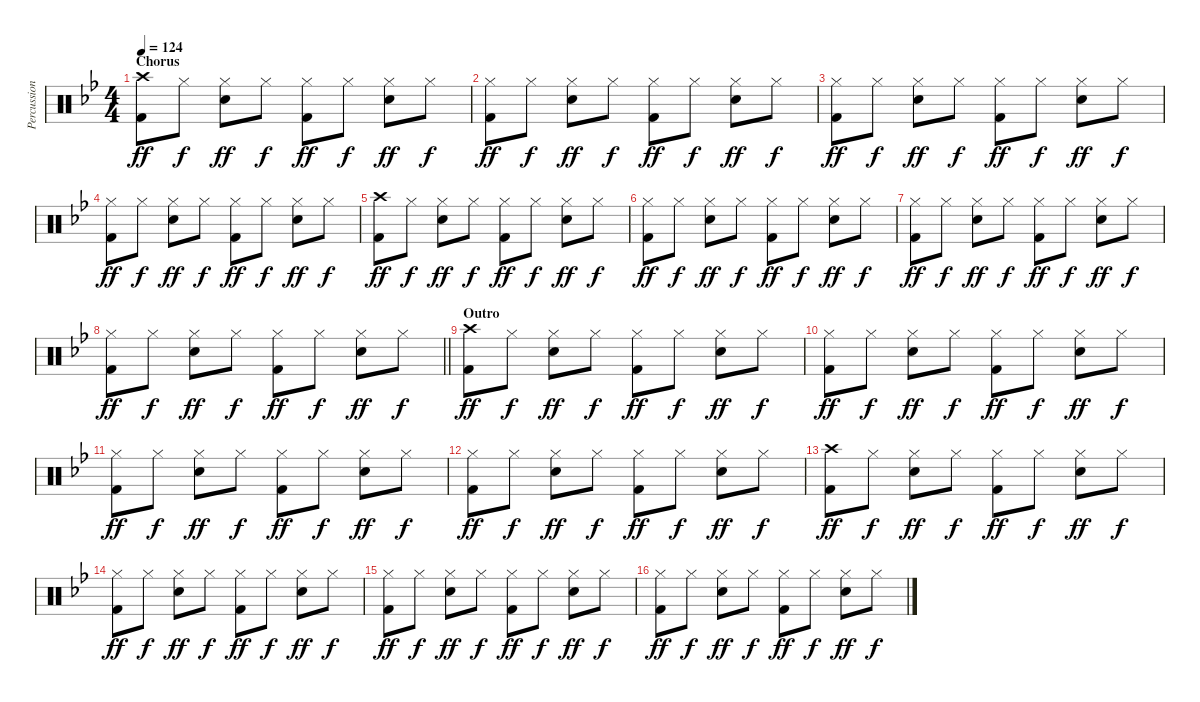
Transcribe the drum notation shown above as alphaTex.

\track ("Percussion" "Percussion") {instrument percussion}
\staff {score}
\articulation defaults
\ts (4 4)
\section ("" "Chorus")
\tempo 124
\clef neutral
\ks gminor
("Crash high (hit)" "Kick (hit) 2").8{dy ff} "Hi-Hat (closed)".8{dy f} ("Hi-Hat (closed)" "Electric Snare (hit)").8{dy ff} "Hi-Hat (closed)".8{dy f} ("Hi-Hat (closed)" "Kick (hit) 2").8{dy ff} "Hi-Hat (closed)".8{dy f} ("Hi-Hat (closed)" "Electric Snare (hit)").8{dy ff} "Hi-Hat (closed)".8{dy f} |
("Hi-Hat (closed)" "Kick (hit) 2").8{dy ff} "Hi-Hat (closed)".8{dy f} ("Hi-Hat (closed)" "Electric Snare (hit)").8{dy ff} "Hi-Hat (closed)".8{dy f} ("Hi-Hat (closed)" "Kick (hit) 2").8{dy ff} "Hi-Hat (closed)".8{dy f} ("Hi-Hat (closed)" "Electric Snare (hit)").8{dy ff} "Hi-Hat (closed)".8{dy f} |
("Hi-Hat (closed)" "Kick (hit) 2").8{dy ff} "Hi-Hat (closed)".8{dy f} ("Hi-Hat (closed)" "Electric Snare (hit)").8{dy ff} "Hi-Hat (closed)".8{dy f} ("Hi-Hat (closed)" "Kick (hit) 2").8{dy ff} "Hi-Hat (closed)".8{dy f} ("Hi-Hat (closed)" "Electric Snare (hit)").8{dy ff} "Hi-Hat (closed)".8{dy f} |
("Hi-Hat (closed)" "Kick (hit) 2").8{dy ff} "Hi-Hat (closed)".8{dy f} ("Hi-Hat (closed)" "Electric Snare (hit)").8{dy ff} "Hi-Hat (closed)".8{dy f} ("Hi-Hat (closed)" "Kick (hit) 2").8{dy ff} "Hi-Hat (closed)".8{dy f} ("Hi-Hat (closed)" "Electric Snare (hit)").8{dy ff} "Hi-Hat (closed)".8{dy f} |
("Crash high (hit)" "Kick (hit) 2").8{dy ff} "Hi-Hat (closed)".8{dy f} ("Hi-Hat (closed)" "Electric Snare (hit)").8{dy ff} "Hi-Hat (closed)".8{dy f} ("Hi-Hat (closed)" "Kick (hit) 2").8{dy ff} "Hi-Hat (closed)".8{dy f} ("Hi-Hat (closed)" "Electric Snare (hit)").8{dy ff} "Hi-Hat (closed)".8{dy f} |
("Hi-Hat (closed)" "Kick (hit) 2").8{dy ff} "Hi-Hat (closed)".8{dy f} ("Hi-Hat (closed)" "Electric Snare (hit)").8{dy ff} "Hi-Hat (closed)".8{dy f} ("Hi-Hat (closed)" "Kick (hit) 2").8{dy ff} "Hi-Hat (closed)".8{dy f} ("Hi-Hat (closed)" "Electric Snare (hit)").8{dy ff} "Hi-Hat (closed)".8{dy f} |
("Hi-Hat (closed)" "Kick (hit) 2").8{dy ff} "Hi-Hat (closed)".8{dy f} ("Hi-Hat (closed)" "Electric Snare (hit)").8{dy ff} "Hi-Hat (closed)".8{dy f} ("Hi-Hat (closed)" "Kick (hit) 2").8{dy ff} "Hi-Hat (closed)".8{dy f} ("Hi-Hat (closed)" "Electric Snare (hit)").8{dy ff} "Hi-Hat (closed)".8{dy f} |
\barLineRight lightlight
("Hi-Hat (closed)" "Kick (hit) 2").8{dy ff} "Hi-Hat (closed)".8{dy f} ("Hi-Hat (closed)" "Electric Snare (hit)").8{dy ff} "Hi-Hat (closed)".8{dy f} ("Hi-Hat (closed)" "Kick (hit) 2").8{dy ff} "Hi-Hat (closed)".8{dy f} ("Hi-Hat (closed)" "Electric Snare (hit)").8{dy ff} "Hi-Hat (closed)".8{dy f} |
\section ("" "Outro")
("Crash high (hit)" "Kick (hit) 2").8{dy ff} "Hi-Hat (closed)".8{dy f} ("Hi-Hat (closed)" "Electric Snare (hit)").8{dy ff} "Hi-Hat (closed)".8{dy f} ("Hi-Hat (closed)" "Kick (hit) 2").8{dy ff} "Hi-Hat (closed)".8{dy f} ("Hi-Hat (closed)" "Electric Snare (hit)").8{dy ff} "Hi-Hat (closed)".8{dy f} |
("Hi-Hat (closed)" "Kick (hit) 2").8{dy ff} "Hi-Hat (closed)".8{dy f} ("Hi-Hat (closed)" "Electric Snare (hit)").8{dy ff} "Hi-Hat (closed)".8{dy f} ("Hi-Hat (closed)" "Kick (hit) 2").8{dy ff} "Hi-Hat (closed)".8{dy f} ("Hi-Hat (closed)" "Electric Snare (hit)").8{dy ff} "Hi-Hat (closed)".8{dy f} |
("Hi-Hat (closed)" "Kick (hit) 2").8{dy ff} "Hi-Hat (closed)".8{dy f} ("Hi-Hat (closed)" "Electric Snare (hit)").8{dy ff} "Hi-Hat (closed)".8{dy f} ("Hi-Hat (closed)" "Kick (hit) 2").8{dy ff} "Hi-Hat (closed)".8{dy f} ("Hi-Hat (closed)" "Electric Snare (hit)").8{dy ff} "Hi-Hat (closed)".8{dy f} |
("Hi-Hat (closed)" "Kick (hit) 2").8{dy ff} "Hi-Hat (closed)".8{dy f} ("Hi-Hat (closed)" "Electric Snare (hit)").8{dy ff} "Hi-Hat (closed)".8{dy f} ("Hi-Hat (closed)" "Kick (hit) 2").8{dy ff} "Hi-Hat (closed)".8{dy f} ("Hi-Hat (closed)" "Electric Snare (hit)").8{dy ff} "Hi-Hat (closed)".8{dy f} |
("Crash high (hit)" "Kick (hit) 2").8{dy ff} "Hi-Hat (closed)".8{dy f} ("Hi-Hat (closed)" "Electric Snare (hit)").8{dy ff} "Hi-Hat (closed)".8{dy f} ("Hi-Hat (closed)" "Kick (hit) 2").8{dy ff} "Hi-Hat (closed)".8{dy f} ("Hi-Hat (closed)" "Electric Snare (hit)").8{dy ff} "Hi-Hat (closed)".8{dy f} |
("Hi-Hat (closed)" "Kick (hit) 2").8{dy ff} "Hi-Hat (closed)".8{dy f} ("Hi-Hat (closed)" "Electric Snare (hit)").8{dy ff} "Hi-Hat (closed)".8{dy f} ("Hi-Hat (closed)" "Kick (hit) 2").8{dy ff} "Hi-Hat (closed)".8{dy f} ("Hi-Hat (closed)" "Electric Snare (hit)").8{dy ff} "Hi-Hat (closed)".8{dy f} |
("Hi-Hat (closed)" "Kick (hit) 2").8{dy ff} "Hi-Hat (closed)".8{dy f} ("Hi-Hat (closed)" "Electric Snare (hit)").8{dy ff} "Hi-Hat (closed)".8{dy f} ("Hi-Hat (closed)" "Kick (hit) 2").8{dy ff} "Hi-Hat (closed)".8{dy f} ("Hi-Hat (closed)" "Electric Snare (hit)").8{dy ff} "Hi-Hat (closed)".8{dy f} |
("Hi-Hat (closed)" "Kick (hit) 2").8{dy ff} "Hi-Hat (closed)".8{dy f} ("Hi-Hat (closed)" "Electric Snare (hit)").8{dy ff} "Hi-Hat (closed)".8{dy f} ("Hi-Hat (closed)" "Kick (hit) 2").8{dy ff} "Hi-Hat (closed)".8{dy f} ("Hi-Hat (closed)" "Electric Snare (hit)").8{dy ff} "Hi-Hat (closed)".8{dy f}
